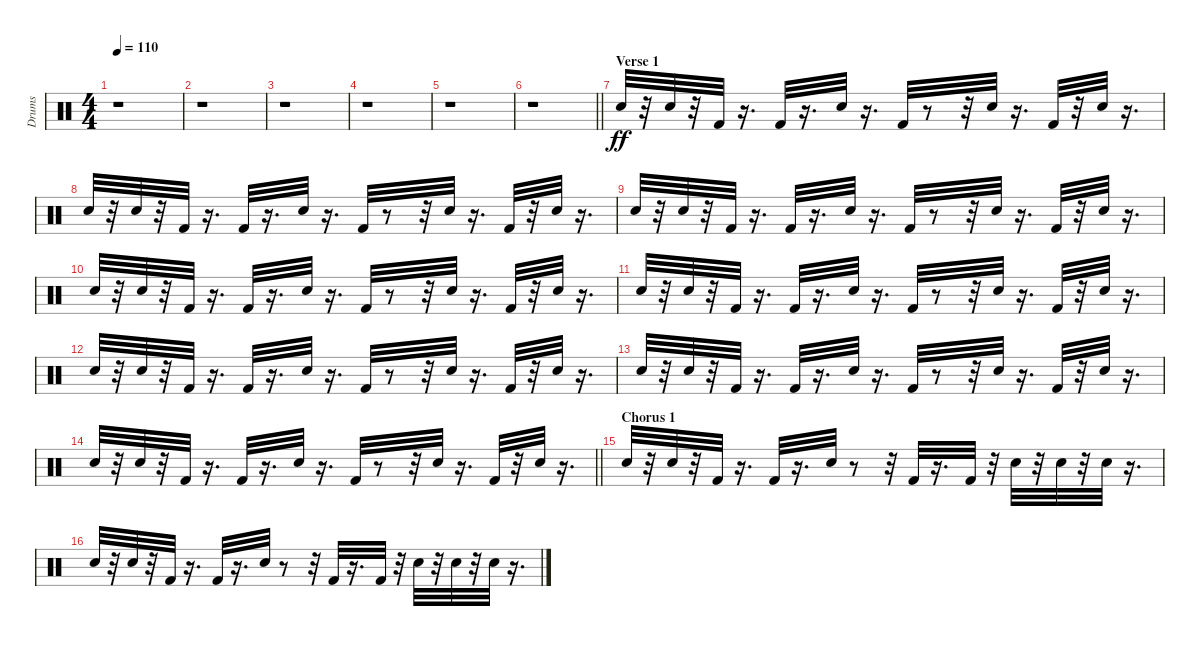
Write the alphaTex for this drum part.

\track ("Drums" "Drums") {instrument percussion}
\staff {score}
\articulation defaults
\ts (4 4)
\tempo 110
\clef neutral
\ks c
r.1{dy ff} |
r.1 |
r.1 |
r.1 |
r.1 |
\barLineRight lightlight
r.1 |
\section ("" "Verse 1")
"Electric Snare (hit)".32 r.32 "Electric Snare (hit)".32 r.32 "Kick (hit) 2".32 r.16{d} "Kick (hit) 2".32 r.16{d} "Electric Snare (hit)".32 r.16{d} "Kick (hit) 2".32 r.8 r.32 "Electric Snare (hit)".32 r.16{d} "Kick (hit) 2".32 r.32 "Electric Snare (hit)".32 r.16{d} |
"Electric Snare (hit)".32 r.32 "Electric Snare (hit)".32 r.32 "Kick (hit) 2".32 r.16{d} "Kick (hit) 2".32 r.16{d} "Electric Snare (hit)".32 r.16{d} "Kick (hit) 2".32 r.8 r.32 "Electric Snare (hit)".32 r.16{d} "Kick (hit) 2".32 r.32 "Electric Snare (hit)".32 r.16{d} |
"Electric Snare (hit)".32 r.32 "Electric Snare (hit)".32 r.32 "Kick (hit) 2".32 r.16{d} "Kick (hit) 2".32 r.16{d} "Electric Snare (hit)".32 r.16{d} "Kick (hit) 2".32 r.8 r.32 "Electric Snare (hit)".32 r.16{d} "Kick (hit) 2".32 r.32 "Electric Snare (hit)".32 r.16{d} |
"Electric Snare (hit)".32 r.32 "Electric Snare (hit)".32 r.32 "Kick (hit) 2".32 r.16{d} "Kick (hit) 2".32 r.16{d} "Electric Snare (hit)".32 r.16{d} "Kick (hit) 2".32 r.8 r.32 "Electric Snare (hit)".32 r.16{d} "Kick (hit) 2".32 r.32 "Electric Snare (hit)".32 r.16{d} |
"Electric Snare (hit)".32 r.32 "Electric Snare (hit)".32 r.32 "Kick (hit) 2".32 r.16{d} "Kick (hit) 2".32 r.16{d} "Electric Snare (hit)".32 r.16{d} "Kick (hit) 2".32 r.8 r.32 "Electric Snare (hit)".32 r.16{d} "Kick (hit) 2".32 r.32 "Electric Snare (hit)".32 r.16{d} |
"Electric Snare (hit)".32 r.32 "Electric Snare (hit)".32 r.32 "Kick (hit) 2".32 r.16{d} "Kick (hit) 2".32 r.16{d} "Electric Snare (hit)".32 r.16{d} "Kick (hit) 2".32 r.8 r.32 "Electric Snare (hit)".32 r.16{d} "Kick (hit) 2".32 r.32 "Electric Snare (hit)".32 r.16{d} |
"Electric Snare (hit)".32 r.32 "Electric Snare (hit)".32 r.32 "Kick (hit) 2".32 r.16{d} "Kick (hit) 2".32 r.16{d} "Electric Snare (hit)".32 r.16{d} "Kick (hit) 2".32 r.8 r.32 "Electric Snare (hit)".32 r.16{d} "Kick (hit) 2".32 r.32 "Electric Snare (hit)".32 r.16{d} |
\barLineRight lightlight "Electric Snare (hit)".32
r.32 "Electric Snare (hit)".32 r.32 "Kick (hit) 2".32 r.16{d} "Kick (hit) 2".32 r.16{d} "Electric Snare (hit)".32 r.16{d} "Kick (hit) 2".32 r.8 r.32 "Electric Snare (hit)".32 r.16{d} "Kick (hit) 2".32 r.32 "Electric Snare (hit)".32 r.16{d} |
\section ("" "Chorus 1")
"Electric Snare (hit)".32 r.32 "Electric Snare (hit)".32 r.32 "Kick (hit) 2".32 r.16{d} "Kick (hit) 2".32 r.16{d} "Electric Snare (hit)".32 r.8 r.32 "Kick (hit) 2".32 r.16{d} "Kick (hit) 2".32 r.32 "Electric Snare (hit)".32 r.32 "Electric Snare (hit)".32 r.32 "Electric Snare (hit)".32 r.16{d} |
"Electric Snare (hit)".32 r.32 "Electric Snare (hit)".32 r.32 "Kick (hit) 2".32 r.16{d} "Kick (hit) 2".32 r.16{d} "Electric Snare (hit)".32 r.8 r.32 "Kick (hit) 2".32 r.16{d} "Kick (hit) 2".32 r.32 "Electric Snare (hit)".32 r.32 "Electric Snare (hit)".32 r.32 "Electric Snare (hit)".32 r.16{d}
